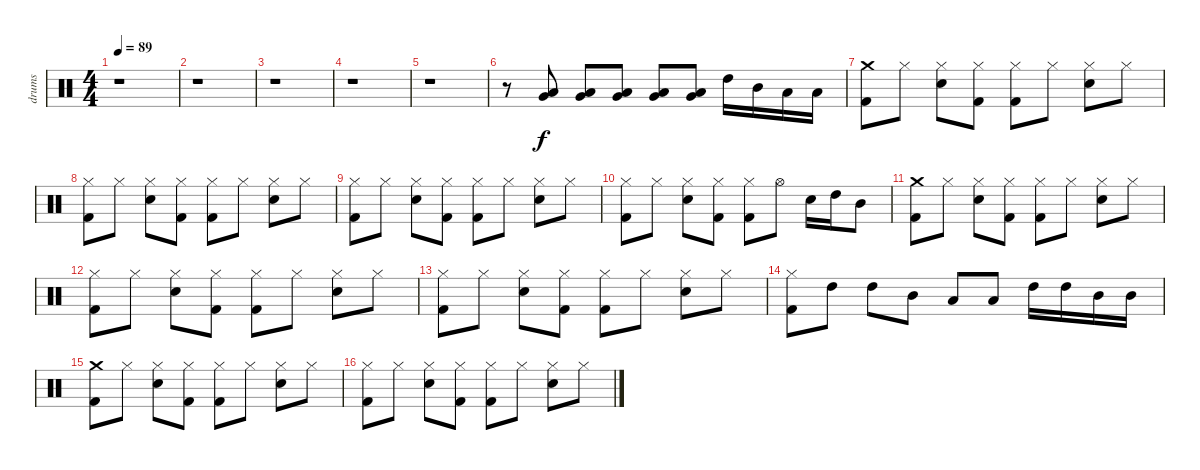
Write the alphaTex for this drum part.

\track ("drums" "drums") {instrument percussion}
\staff {score}
\articulation defaults
\ts (4 4)
\tempo 89
\clef neutral
\ks c
r.1{dy f} |
r.1 |
r.1 |
r.1 |
r.1 |
r.8 ("Low Tom (hit)" "Very Low Tom (hit)").8 ("Low Tom (hit)" "Very Low Tom (hit)").8 ("Low Tom (hit)" "Very Low Tom (hit)").8 ("Low Tom (hit)" "Very Low Tom (hit)").8 ("Low Tom (hit)" "Very Low Tom (hit)").8 "High Tom (hit)".16 "Mid Tom (hit)".16 "Low Tom (hit)".16 "Low Tom (hit)".16 |
("Kick (hit) 2" "Crash medium (hit)").8 "Hi-Hat (closed)".8 ("Snare (hit) 2" "Hi-Hat (closed)").8 ("Kick (hit) 2" "Hi-Hat (closed)").8 ("Kick (hit) 2" "Hi-Hat (closed)").8 "Hi-Hat (closed)".8 ("Snare (hit) 2" "Hi-Hat (closed)").8 "Hi-Hat (closed)".8 |
("Kick (hit) 2" "Hi-Hat (closed)").8 "Hi-Hat (closed)".8 ("Snare (hit) 2" "Hi-Hat (closed)").8 ("Kick (hit) 2" "Hi-Hat (closed)").8 ("Kick (hit) 2" "Hi-Hat (closed)").8 "Hi-Hat (closed)".8 ("Snare (hit) 2" "Hi-Hat (closed)").8 "Hi-Hat (closed)".8 |
("Kick (hit) 2" "Hi-Hat (closed)").8 "Hi-Hat (closed)".8 ("Snare (hit) 2" "Hi-Hat (closed)").8 ("Kick (hit) 2" "Hi-Hat (closed)").8 ("Kick (hit) 2" "Hi-Hat (closed)").8 "Hi-Hat (closed)".8 ("Snare (hit) 2" "Hi-Hat (closed)").8 "Hi-Hat (closed)".8 |
("Kick (hit) 2" "Hi-Hat (closed)").8 "Hi-Hat (closed)".8 ("Snare (hit) 2" "Hi-Hat (closed)").8 ("Kick (hit) 2" "Hi-Hat (closed)").8 ("Kick (hit) 2" "Hi-Hat (closed)").8 "Hi-Hat (open)".8 "Snare (hit) 2".16 "High Tom (hit)".16 "Mid Tom (hit)".8 |
("Kick (hit) 2" "Crash medium (hit)").8 "Hi-Hat (closed)".8 ("Snare (hit) 2" "Hi-Hat (closed)").8 ("Kick (hit) 2" "Hi-Hat (closed)").8 ("Kick (hit) 2" "Hi-Hat (closed)").8 "Hi-Hat (closed)".8 ("Snare (hit) 2" "Hi-Hat (closed)").8 "Hi-Hat (closed)".8 |
("Kick (hit) 2" "Hi-Hat (closed)").8 "Hi-Hat (closed)".8 ("Snare (hit) 2" "Hi-Hat (closed)").8 ("Kick (hit) 2" "Hi-Hat (closed)").8 ("Kick (hit) 2" "Hi-Hat (closed)").8 "Hi-Hat (closed)".8 ("Snare (hit) 2" "Hi-Hat (closed)").8 "Hi-Hat (closed)".8 |
("Kick (hit) 2" "Hi-Hat (closed)").8 "Hi-Hat (closed)".8 ("Snare (hit) 2" "Hi-Hat (closed)").8 ("Kick (hit) 2" "Hi-Hat (closed)").8 ("Kick (hit) 2" "Hi-Hat (closed)").8 "Hi-Hat (closed)".8 ("Snare (hit) 2" "Hi-Hat (closed)").8 "Hi-Hat (closed)".8 |
("Kick (hit) 2" "Hi-Hat (closed)").8 "High Tom (hit)".8 "High Tom (hit)".8 "Mid Tom (hit)".8 "Low Tom (hit)".8 "Low Tom (hit)".8 "High Tom (hit)".16 "High Tom (hit)".16 "Mid Tom (hit)".16 "Mid Tom (hit)".16 |
("Kick (hit) 2" "Crash medium (hit)").8 "Hi-Hat (closed)".8 ("Snare (hit) 2" "Hi-Hat (closed)").8 ("Kick (hit) 2" "Hi-Hat (closed)").8 ("Kick (hit) 2" "Hi-Hat (closed)").8 "Hi-Hat (closed)".8 ("Snare (hit) 2" "Hi-Hat (closed)").8 "Hi-Hat (closed)".8 |
("Kick (hit) 2" "Hi-Hat (closed)").8 "Hi-Hat (closed)".8 ("Snare (hit) 2" "Hi-Hat (closed)").8 ("Kick (hit) 2" "Hi-Hat (closed)").8 ("Kick (hit) 2" "Hi-Hat (closed)").8 "Hi-Hat (closed)".8 ("Snare (hit) 2" "Hi-Hat (closed)").8 "Hi-Hat (closed)".8
